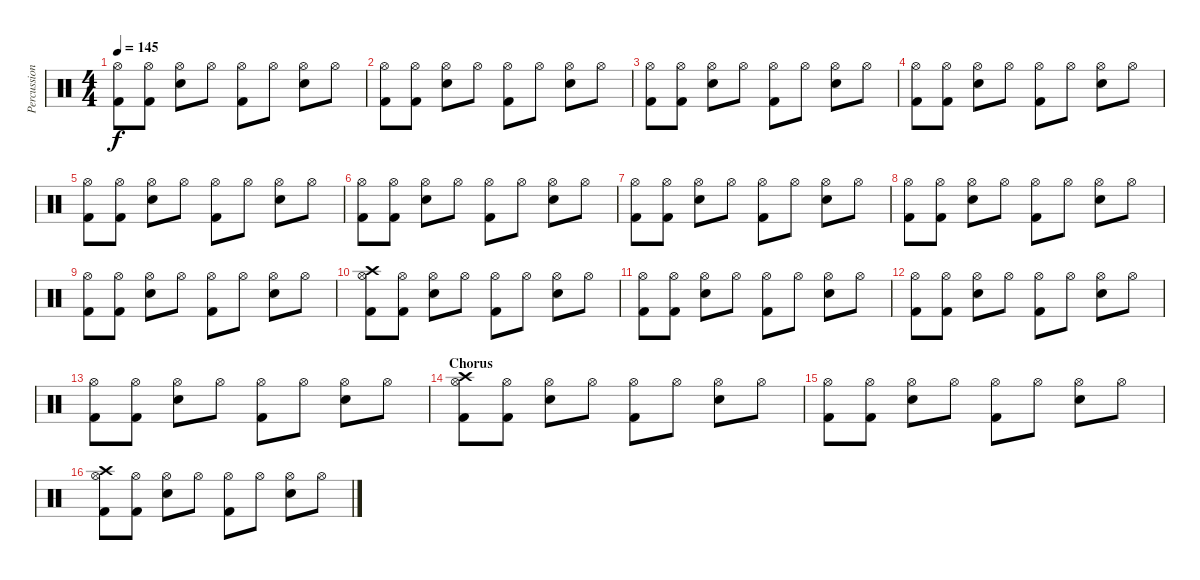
\track ("Percussion" "Percussion") {instrument percussion}
\staff {score}
\articulation defaults
\ts (4 4)
\tempo 145
\clef neutral
\ks c
("Hi-Hat (open)" "Kick (hit) 2").8{dy f} ("Hi-Hat (open)" "Kick (hit) 2").8 ("Hi-Hat (open)" "Snare (hit) 2").8 "Hi-Hat (open)".8 ("Hi-Hat (open)" "Kick (hit) 2").8 "Hi-Hat (open)".8 ("Hi-Hat (open)" "Snare (hit) 2").8 "Hi-Hat (open)".8 |
("Hi-Hat (open)" "Kick (hit) 2").8 ("Hi-Hat (open)" "Kick (hit) 2").8 ("Hi-Hat (open)" "Snare (hit) 2").8 "Hi-Hat (open)".8 ("Hi-Hat (open)" "Kick (hit) 2").8 "Hi-Hat (open)".8 ("Hi-Hat (open)" "Snare (hit) 2").8 "Hi-Hat (open)".8 |
("Hi-Hat (open)" "Kick (hit) 2").8 ("Hi-Hat (open)" "Kick (hit) 2").8 ("Hi-Hat (open)" "Snare (hit) 2").8 "Hi-Hat (open)".8 ("Hi-Hat (open)" "Kick (hit) 2").8 "Hi-Hat (open)".8 ("Hi-Hat (open)" "Snare (hit) 2").8 "Hi-Hat (open)".8 |
("Hi-Hat (open)" "Kick (hit) 2").8 ("Hi-Hat (open)" "Kick (hit) 2").8 ("Hi-Hat (open)" "Snare (hit) 2").8 "Hi-Hat (open)".8 ("Hi-Hat (open)" "Kick (hit) 2").8 "Hi-Hat (open)".8 ("Hi-Hat (open)" "Snare (hit) 2").8 "Hi-Hat (open)".8 |
("Hi-Hat (open)" "Kick (hit) 2").8 ("Hi-Hat (open)" "Kick (hit) 2").8 ("Hi-Hat (open)" "Snare (hit) 2").8 "Hi-Hat (open)".8 ("Hi-Hat (open)" "Kick (hit) 2").8 "Hi-Hat (open)".8 ("Hi-Hat (open)" "Snare (hit) 2").8 "Hi-Hat (open)".8 |
("Hi-Hat (open)" "Kick (hit) 2").8 ("Hi-Hat (open)" "Kick (hit) 2").8 ("Hi-Hat (open)" "Snare (hit) 2").8 "Hi-Hat (open)".8 ("Hi-Hat (open)" "Kick (hit) 2").8 "Hi-Hat (open)".8 ("Hi-Hat (open)" "Snare (hit) 2").8 "Hi-Hat (open)".8 |
("Hi-Hat (open)" "Kick (hit) 2").8 ("Hi-Hat (open)" "Kick (hit) 2").8 ("Hi-Hat (open)" "Snare (hit) 2").8 "Hi-Hat (open)".8 ("Hi-Hat (open)" "Kick (hit) 2").8 "Hi-Hat (open)".8 ("Hi-Hat (open)" "Snare (hit) 2").8 "Hi-Hat (open)".8 |
("Hi-Hat (open)" "Kick (hit) 2").8 ("Hi-Hat (open)" "Kick (hit) 2").8 ("Hi-Hat (open)" "Snare (hit) 2").8 "Hi-Hat (open)".8 ("Hi-Hat (open)" "Kick (hit) 2").8 "Hi-Hat (open)".8 ("Hi-Hat (open)" "Snare (hit) 2").8 "Hi-Hat (open)".8 |
("Hi-Hat (open)" "Kick (hit) 2").8 ("Hi-Hat (open)" "Kick (hit) 2").8 ("Hi-Hat (open)" "Snare (hit) 2").8 "Hi-Hat (open)".8 ("Hi-Hat (open)" "Kick (hit) 2").8 "Hi-Hat (open)".8 ("Hi-Hat (open)" "Snare (hit) 2").8 "Hi-Hat (open)".8 |
("Hi-Hat (open)" "Kick (hit) 2" "Crash high (hit)").8 ("Hi-Hat (open)" "Kick (hit) 2").8 ("Hi-Hat (open)" "Snare (hit) 2").8 "Hi-Hat (open)".8 ("Hi-Hat (open)" "Kick (hit) 2").8 "Hi-Hat (open)".8 ("Hi-Hat (open)" "Snare (hit) 2").8 "Hi-Hat (open)".8 |
("Hi-Hat (open)" "Kick (hit) 2").8 ("Hi-Hat (open)" "Kick (hit) 2").8 ("Hi-Hat (open)" "Snare (hit) 2").8 "Hi-Hat (open)".8 ("Hi-Hat (open)" "Kick (hit) 2").8 "Hi-Hat (open)".8 ("Hi-Hat (open)" "Snare (hit) 2").8 "Hi-Hat (open)".8 |
("Hi-Hat (open)" "Kick (hit) 2").8 ("Hi-Hat (open)" "Kick (hit) 2").8 ("Hi-Hat (open)" "Snare (hit) 2").8 "Hi-Hat (open)".8 ("Hi-Hat (open)" "Kick (hit) 2").8 "Hi-Hat (open)".8 ("Hi-Hat (open)" "Snare (hit) 2").8 "Hi-Hat (open)".8 |
("Hi-Hat (open)" "Kick (hit) 2").8 ("Hi-Hat (open)" "Kick (hit) 2").8 ("Hi-Hat (open)" "Snare (hit) 2").8 "Hi-Hat (open)".8 ("Hi-Hat (open)" "Kick (hit) 2").8 "Hi-Hat (open)".8 ("Hi-Hat (open)" "Snare (hit) 2").8 "Hi-Hat (open)".8 |
\section ("" "Chorus")
("Hi-Hat (open)" "Kick (hit) 2" "Crash high (hit)").8 ("Hi-Hat (open)" "Kick (hit) 2").8 ("Hi-Hat (open)" "Snare (hit) 2").8 "Hi-Hat (open)".8 ("Hi-Hat (open)" "Kick (hit) 2").8 "Hi-Hat (open)".8 ("Hi-Hat (open)" "Snare (hit) 2").8 "Hi-Hat (open)".8 |
("Hi-Hat (open)" "Kick (hit) 2").8 ("Hi-Hat (open)" "Kick (hit) 2").8 ("Hi-Hat (open)" "Snare (hit) 2").8 "Hi-Hat (open)".8 ("Hi-Hat (open)" "Kick (hit) 2").8 "Hi-Hat (open)".8 ("Hi-Hat (open)" "Snare (hit) 2").8 "Hi-Hat (open)".8 |
("Hi-Hat (open)" "Kick (hit) 2" "Crash high (hit)").8 ("Hi-Hat (open)" "Kick (hit) 2").8 ("Hi-Hat (open)" "Snare (hit) 2").8 "Hi-Hat (open)".8 ("Hi-Hat (open)" "Kick (hit) 2").8 "Hi-Hat (open)".8 ("Hi-Hat (open)" "Snare (hit) 2").8 "Hi-Hat (open)".8
